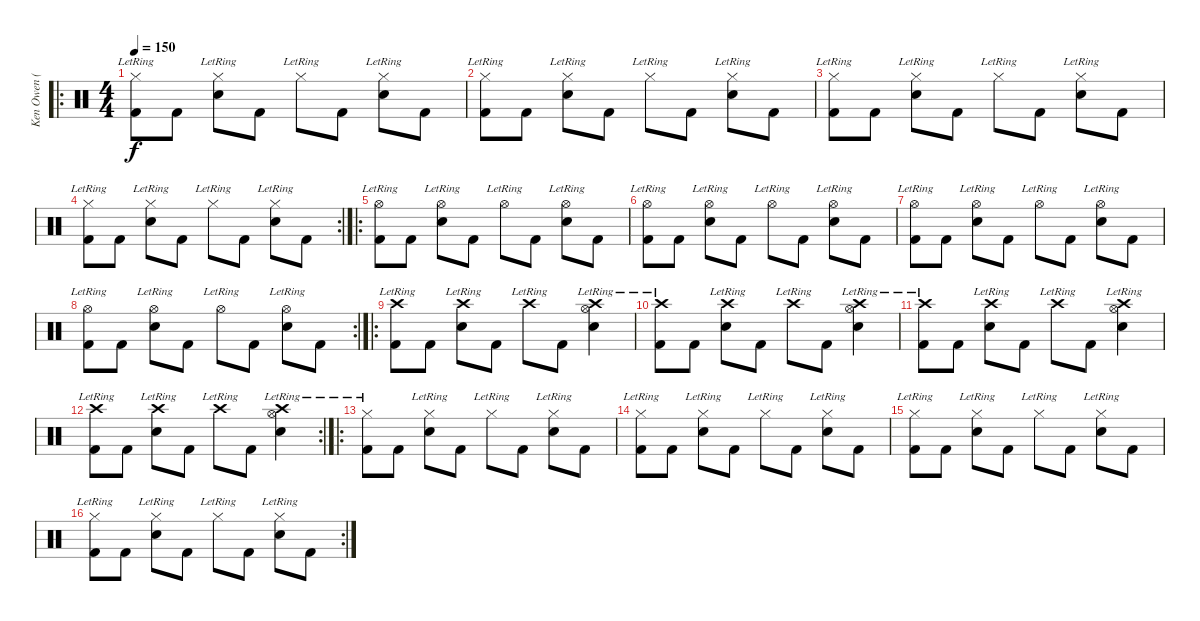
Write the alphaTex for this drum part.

\track ("Ken Owen (Drums)" "Ken Owen (") {instrument percussion}
\staff {score}
\articulation defaults
\ro
\ts (4 4)
\tempo 150
\clef neutral
\ks c
("Hi-Hat (closed)"{lr} "Kick (hit) 2").8{dy f} "Kick (hit) 2".8 ("Hi-Hat (closed)"{lr} "Snare (hit) 2").8 "Kick (hit) 2".8 "Hi-Hat (closed)"{lr}.8 "Kick (hit) 2".8 ("Hi-Hat (closed)"{lr} "Snare (hit) 2").8 "Kick (hit) 2".8 |
("Hi-Hat (closed)"{lr} "Kick (hit) 2").8 "Kick (hit) 2".8 ("Hi-Hat (closed)"{lr} "Snare (hit) 2").8 "Kick (hit) 2".8 "Hi-Hat (closed)"{lr}.8 "Kick (hit) 2".8 ("Hi-Hat (closed)"{lr} "Snare (hit) 2").8 "Kick (hit) 2".8 |
("Hi-Hat (closed)"{lr} "Kick (hit) 2").8 "Kick (hit) 2".8 ("Hi-Hat (closed)"{lr} "Snare (hit) 2").8 "Kick (hit) 2".8 "Hi-Hat (closed)"{lr}.8 "Kick (hit) 2".8 ("Hi-Hat (closed)"{lr} "Snare (hit) 2").8 "Kick (hit) 2".8 |
\rc 2
("Hi-Hat (closed)"{lr} "Kick (hit) 2").8 "Kick (hit) 2".8 ("Hi-Hat (closed)"{lr} "Snare (hit) 2").8 "Kick (hit) 2".8 "Hi-Hat (closed)"{lr}.8 "Kick (hit) 2".8 ("Hi-Hat (closed)"{lr} "Snare (hit) 2").8 "Kick (hit) 2".8 |
\ro
("Hi-Hat (open)"{lr} "Kick (hit) 2").8 "Kick (hit) 2".8 ("Hi-Hat (open)"{lr} "Snare (hit) 2").8 "Kick (hit) 2".8 "Hi-Hat (open)"{lr}.8 "Kick (hit) 2".8 ("Hi-Hat (open)"{lr} "Snare (hit) 2").8 "Kick (hit) 2".8 |
("Hi-Hat (open)"{lr} "Kick (hit) 2").8 "Kick (hit) 2".8 ("Hi-Hat (open)"{lr} "Snare (hit) 2").8 "Kick (hit) 2".8 "Hi-Hat (open)"{lr}.8 "Kick (hit) 2".8 ("Hi-Hat (open)"{lr} "Snare (hit) 2").8 "Kick (hit) 2".8 |
("Hi-Hat (open)"{lr} "Kick (hit) 2").8 "Kick (hit) 2".8 ("Hi-Hat (open)"{lr} "Snare (hit) 2").8 "Kick (hit) 2".8 "Hi-Hat (open)"{lr}.8 "Kick (hit) 2".8 ("Hi-Hat (open)"{lr} "Snare (hit) 2").8 "Kick (hit) 2".8 |
\rc 2
("Hi-Hat (open)"{lr} "Kick (hit) 2").8 "Kick (hit) 2".8 ("Hi-Hat (open)"{lr} "Snare (hit) 2").8 "Kick (hit) 2".8 "Hi-Hat (open)"{lr}.8 "Kick (hit) 2".8 ("Hi-Hat (open)"{lr} "Snare (hit) 2").8 "Kick (hit) 2".8 |
\ro
("Crash high (hit)"{lr} "Kick (hit) 2").8 "Kick (hit) 2".8 ("Crash high (hit)"{lr} "Snare (hit) 2").8 "Kick (hit) 2".8 "Crash high (hit)"{lr}.8 "Kick (hit) 2".8 ("Crash high (hit)"{lr} "Hi-Hat (open)"{lr} "Snare (hit) 2").4 |
("Crash high (hit)"{lr} "Kick (hit) 2").8 "Kick (hit) 2".8 ("Crash high (hit)"{lr} "Snare (hit) 2").8 "Kick (hit) 2".8 "Crash high (hit)"{lr}.8 "Kick (hit) 2".8 ("Crash high (hit)"{lr} "Hi-Hat (open)"{lr} "Snare (hit) 2").4 |
("Crash high (hit)"{lr} "Kick (hit) 2").8 "Kick (hit) 2".8 ("Crash high (hit)"{lr} "Snare (hit) 2").8 "Kick (hit) 2".8 "Crash high (hit)"{lr}.8 "Kick (hit) 2".8 ("Crash high (hit)"{lr} "Hi-Hat (open)"{lr} "Snare (hit) 2").4 |
\rc 2
("Crash high (hit)"{lr} "Kick (hit) 2").8 "Kick (hit) 2".8 ("Crash high (hit)"{lr} "Snare (hit) 2").8 "Kick (hit) 2".8 "Crash high (hit)"{lr}.8 "Kick (hit) 2".8 ("Crash high (hit)"{lr} "Hi-Hat (open)"{lr} "Snare (hit) 2").4 |
\ro
("Hi-Hat (closed)"{lr} "Kick (hit) 2").8 "Kick (hit) 2".8 ("Hi-Hat (closed)"{lr} "Snare (hit) 2").8 "Kick (hit) 2".8 "Hi-Hat (closed)"{lr}.8 "Kick (hit) 2".8 ("Hi-Hat (closed)"{lr} "Snare (hit) 2").8 "Kick (hit) 2".8 |
("Hi-Hat (closed)"{lr} "Kick (hit) 2").8 "Kick (hit) 2".8 ("Hi-Hat (closed)"{lr} "Snare (hit) 2").8 "Kick (hit) 2".8 "Hi-Hat (closed)"{lr}.8 "Kick (hit) 2".8 ("Hi-Hat (closed)"{lr} "Snare (hit) 2").8 "Kick (hit) 2".8 |
("Hi-Hat (closed)"{lr} "Kick (hit) 2").8 "Kick (hit) 2".8 ("Hi-Hat (closed)"{lr} "Snare (hit) 2").8 "Kick (hit) 2".8 "Hi-Hat (closed)"{lr}.8 "Kick (hit) 2".8 ("Hi-Hat (closed)"{lr} "Snare (hit) 2").8 "Kick (hit) 2".8 |
\rc 2
("Hi-Hat (closed)"{lr} "Kick (hit) 2").8 "Kick (hit) 2".8 ("Hi-Hat (closed)"{lr} "Snare (hit) 2").8 "Kick (hit) 2".8 "Hi-Hat (closed)"{lr}.8 "Kick (hit) 2".8 ("Hi-Hat (closed)"{lr} "Snare (hit) 2").8 "Kick (hit) 2".8
